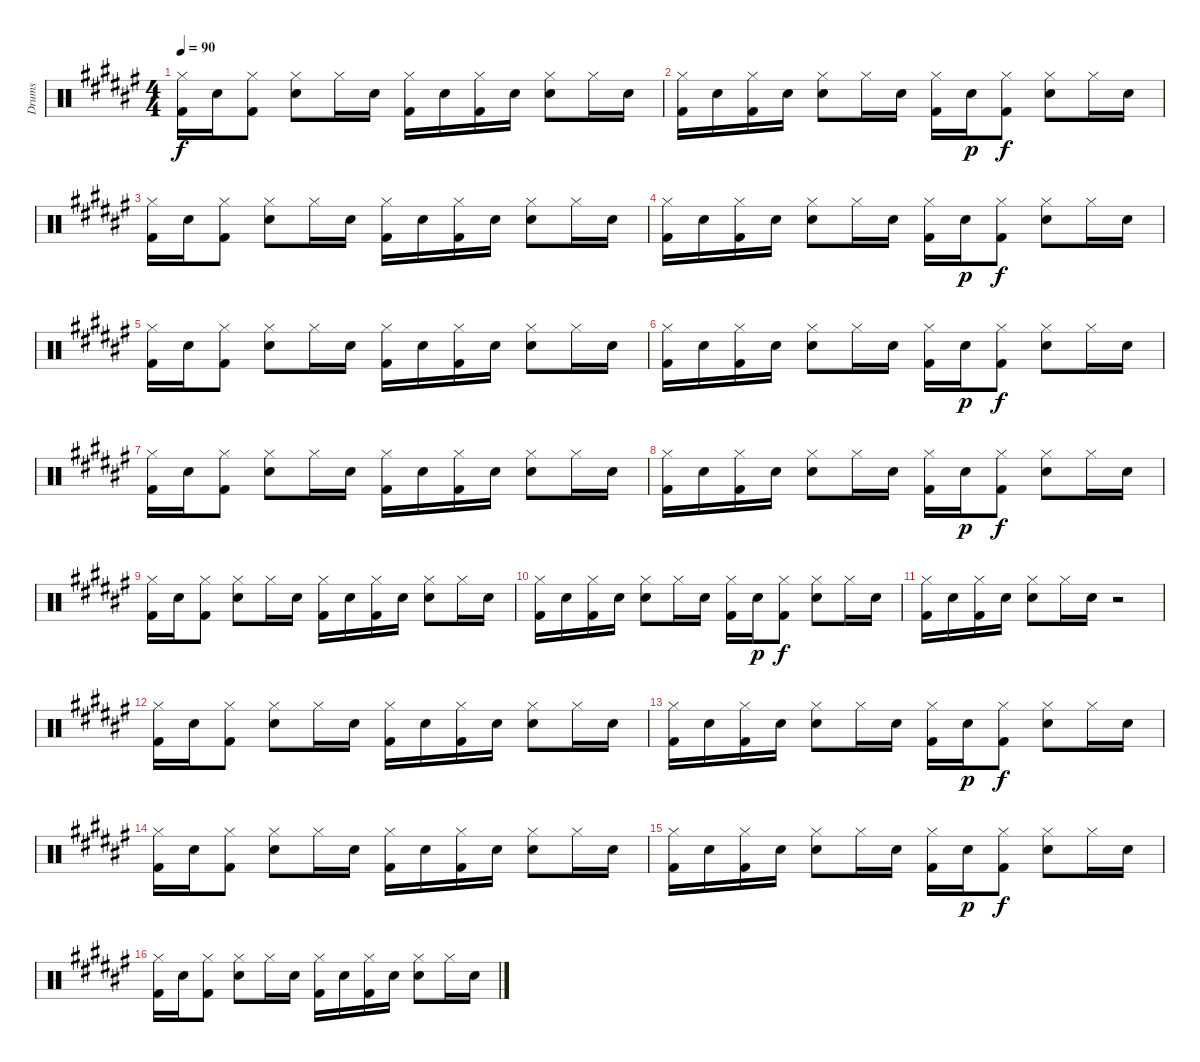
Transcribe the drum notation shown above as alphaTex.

\track ("Drums" "Drums") {instrument percussion}
\staff {score}
\articulation defaults
\ts (4 4)
\tempo 90
\clef neutral
\ks f#
("Hi-Hat (closed)" "Kick (hit) 2").16{dy f} "Snare (hit) 2".16 ("Hi-Hat (closed)" "Kick (hit) 2").8 ("Hi-Hat (closed)" "Snare (hit) 2").8 "Hi-Hat (closed)".16 "Snare (hit) 2".16 ("Hi-Hat (closed)" "Kick (hit) 2").16 "Snare (hit) 2".16 ("Hi-Hat (closed)" "Kick (hit) 2").16 "Snare (hit) 2".16 ("Hi-Hat (closed)" "Snare (hit) 2").8 "Hi-Hat (closed)".16 "Snare (hit) 2".16 |
("Hi-Hat (closed)" "Kick (hit) 2").16 "Snare (hit) 2".16 ("Hi-Hat (closed)" "Kick (hit) 2").16 "Snare (hit) 2".16 ("Hi-Hat (closed)" "Snare (hit) 2").8 "Hi-Hat (closed)".16 "Snare (hit) 2".16 ("Hi-Hat (closed)" "Kick (hit) 2").16 "Snare (hit) 2".16{dy p} ("Hi-Hat (closed)" "Kick (hit) 2").8{dy f} ("Hi-Hat (closed)" "Snare (hit) 2").8 "Hi-Hat (closed)".16 "Snare (hit) 2".16 |
("Hi-Hat (closed)" "Kick (hit) 2").16 "Snare (hit) 2".16 ("Hi-Hat (closed)" "Kick (hit) 2").8 ("Hi-Hat (closed)" "Snare (hit) 2").8 "Hi-Hat (closed)".16 "Snare (hit) 2".16 ("Hi-Hat (closed)" "Kick (hit) 2").16 "Snare (hit) 2".16 ("Hi-Hat (closed)" "Kick (hit) 2").16 "Snare (hit) 2".16 ("Hi-Hat (closed)" "Snare (hit) 2").8 "Hi-Hat (closed)".16 "Snare (hit) 2".16 |
("Hi-Hat (closed)" "Kick (hit) 2").16 "Snare (hit) 2".16 ("Hi-Hat (closed)" "Kick (hit) 2").16 "Snare (hit) 2".16 ("Hi-Hat (closed)" "Snare (hit) 2").8 "Hi-Hat (closed)".16 "Snare (hit) 2".16 ("Hi-Hat (closed)" "Kick (hit) 2").16 "Snare (hit) 2".16{dy p} ("Hi-Hat (closed)" "Kick (hit) 2").8{dy f} ("Hi-Hat (closed)" "Snare (hit) 2").8 "Hi-Hat (closed)".16 "Snare (hit) 2".16 |
("Hi-Hat (closed)" "Kick (hit) 2").16 "Snare (hit) 2".16 ("Hi-Hat (closed)" "Kick (hit) 2").8 ("Hi-Hat (closed)" "Snare (hit) 2").8 "Hi-Hat (closed)".16 "Snare (hit) 2".16 ("Hi-Hat (closed)" "Kick (hit) 2").16 "Snare (hit) 2".16 ("Hi-Hat (closed)" "Kick (hit) 2").16 "Snare (hit) 2".16 ("Hi-Hat (closed)" "Snare (hit) 2").8 "Hi-Hat (closed)".16 "Snare (hit) 2".16 |
("Hi-Hat (closed)" "Kick (hit) 2").16 "Snare (hit) 2".16 ("Hi-Hat (closed)" "Kick (hit) 2").16 "Snare (hit) 2".16 ("Hi-Hat (closed)" "Snare (hit) 2").8 "Hi-Hat (closed)".16 "Snare (hit) 2".16 ("Hi-Hat (closed)" "Kick (hit) 2").16 "Snare (hit) 2".16{dy p} ("Hi-Hat (closed)" "Kick (hit) 2").8{dy f} ("Hi-Hat (closed)" "Snare (hit) 2").8 "Hi-Hat (closed)".16 "Snare (hit) 2".16 |
("Hi-Hat (closed)" "Kick (hit) 2").16 "Snare (hit) 2".16 ("Hi-Hat (closed)" "Kick (hit) 2").8 ("Hi-Hat (closed)" "Snare (hit) 2").8 "Hi-Hat (closed)".16 "Snare (hit) 2".16 ("Hi-Hat (closed)" "Kick (hit) 2").16 "Snare (hit) 2".16 ("Hi-Hat (closed)" "Kick (hit) 2").16 "Snare (hit) 2".16 ("Hi-Hat (closed)" "Snare (hit) 2").8 "Hi-Hat (closed)".16 "Snare (hit) 2".16 |
("Hi-Hat (closed)" "Kick (hit) 2").16 "Snare (hit) 2".16 ("Hi-Hat (closed)" "Kick (hit) 2").16 "Snare (hit) 2".16 ("Hi-Hat (closed)" "Snare (hit) 2").8 "Hi-Hat (closed)".16 "Snare (hit) 2".16 ("Hi-Hat (closed)" "Kick (hit) 2").16 "Snare (hit) 2".16{dy p} ("Hi-Hat (closed)" "Kick (hit) 2").8{dy f} ("Hi-Hat (closed)" "Snare (hit) 2").8 "Hi-Hat (closed)".16 "Snare (hit) 2".16 |
("Hi-Hat (closed)" "Kick (hit) 2").16 "Snare (hit) 2".16 ("Hi-Hat (closed)" "Kick (hit) 2").8 ("Hi-Hat (closed)" "Snare (hit) 2").8 "Hi-Hat (closed)".16 "Snare (hit) 2".16 ("Hi-Hat (closed)" "Kick (hit) 2").16 "Snare (hit) 2".16 ("Hi-Hat (closed)" "Kick (hit) 2").16 "Snare (hit) 2".16 ("Hi-Hat (closed)" "Snare (hit) 2").8 "Hi-Hat (closed)".16 "Snare (hit) 2".16 |
("Hi-Hat (closed)" "Kick (hit) 2").16 "Snare (hit) 2".16 ("Hi-Hat (closed)" "Kick (hit) 2").16 "Snare (hit) 2".16 ("Hi-Hat (closed)" "Snare (hit) 2").8 "Hi-Hat (closed)".16 "Snare (hit) 2".16 ("Hi-Hat (closed)" "Kick (hit) 2").16 "Snare (hit) 2".16{dy p} ("Hi-Hat (closed)" "Kick (hit) 2").8{dy f} ("Hi-Hat (closed)" "Snare (hit) 2").8 "Hi-Hat (closed)".16 "Snare (hit) 2".16 |
("Hi-Hat (closed)" "Kick (hit) 2").16 "Snare (hit) 2".16 ("Hi-Hat (closed)" "Kick (hit) 2").16 "Snare (hit) 2".16 ("Hi-Hat (closed)" "Snare (hit) 2").8 "Hi-Hat (closed)".16 "Snare (hit) 2".16 r.2 |
("Hi-Hat (closed)" "Kick (hit) 2").16 "Snare (hit) 2".16 ("Hi-Hat (closed)" "Kick (hit) 2").8 ("Hi-Hat (closed)" "Snare (hit) 2").8 "Hi-Hat (closed)".16 "Snare (hit) 2".16 ("Hi-Hat (closed)" "Kick (hit) 2").16 "Snare (hit) 2".16 ("Hi-Hat (closed)" "Kick (hit) 2").16 "Snare (hit) 2".16 ("Hi-Hat (closed)" "Snare (hit) 2").8 "Hi-Hat (closed)".16 "Snare (hit) 2".16 |
("Hi-Hat (closed)" "Kick (hit) 2").16 "Snare (hit) 2".16 ("Hi-Hat (closed)" "Kick (hit) 2").16 "Snare (hit) 2".16 ("Hi-Hat (closed)" "Snare (hit) 2").8 "Hi-Hat (closed)".16 "Snare (hit) 2".16 ("Hi-Hat (closed)" "Kick (hit) 2").16 "Snare (hit) 2".16{dy p} ("Hi-Hat (closed)" "Kick (hit) 2").8{dy f} ("Hi-Hat (closed)" "Snare (hit) 2").8 "Hi-Hat (closed)".16 "Snare (hit) 2".16 |
("Hi-Hat (closed)" "Kick (hit) 2").16 "Snare (hit) 2".16 ("Hi-Hat (closed)" "Kick (hit) 2").8 ("Hi-Hat (closed)" "Snare (hit) 2").8 "Hi-Hat (closed)".16 "Snare (hit) 2".16 ("Hi-Hat (closed)" "Kick (hit) 2").16 "Snare (hit) 2".16 ("Hi-Hat (closed)" "Kick (hit) 2").16 "Snare (hit) 2".16 ("Hi-Hat (closed)" "Snare (hit) 2").8 "Hi-Hat (closed)".16 "Snare (hit) 2".16 |
("Hi-Hat (closed)" "Kick (hit) 2").16 "Snare (hit) 2".16 ("Hi-Hat (closed)" "Kick (hit) 2").16 "Snare (hit) 2".16 ("Hi-Hat (closed)" "Snare (hit) 2").8 "Hi-Hat (closed)".16 "Snare (hit) 2".16 ("Hi-Hat (closed)" "Kick (hit) 2").16 "Snare (hit) 2".16{dy p} ("Hi-Hat (closed)" "Kick (hit) 2").8{dy f} ("Hi-Hat (closed)" "Snare (hit) 2").8 "Hi-Hat (closed)".16 "Snare (hit) 2".16 |
("Hi-Hat (closed)" "Kick (hit) 2").16 "Snare (hit) 2".16 ("Hi-Hat (closed)" "Kick (hit) 2").8 ("Hi-Hat (closed)" "Snare (hit) 2").8 "Hi-Hat (closed)".16 "Snare (hit) 2".16 ("Hi-Hat (closed)" "Kick (hit) 2").16 "Snare (hit) 2".16 ("Hi-Hat (closed)" "Kick (hit) 2").16 "Snare (hit) 2".16 ("Hi-Hat (closed)" "Snare (hit) 2").8 "Hi-Hat (closed)".16 "Snare (hit) 2".16
